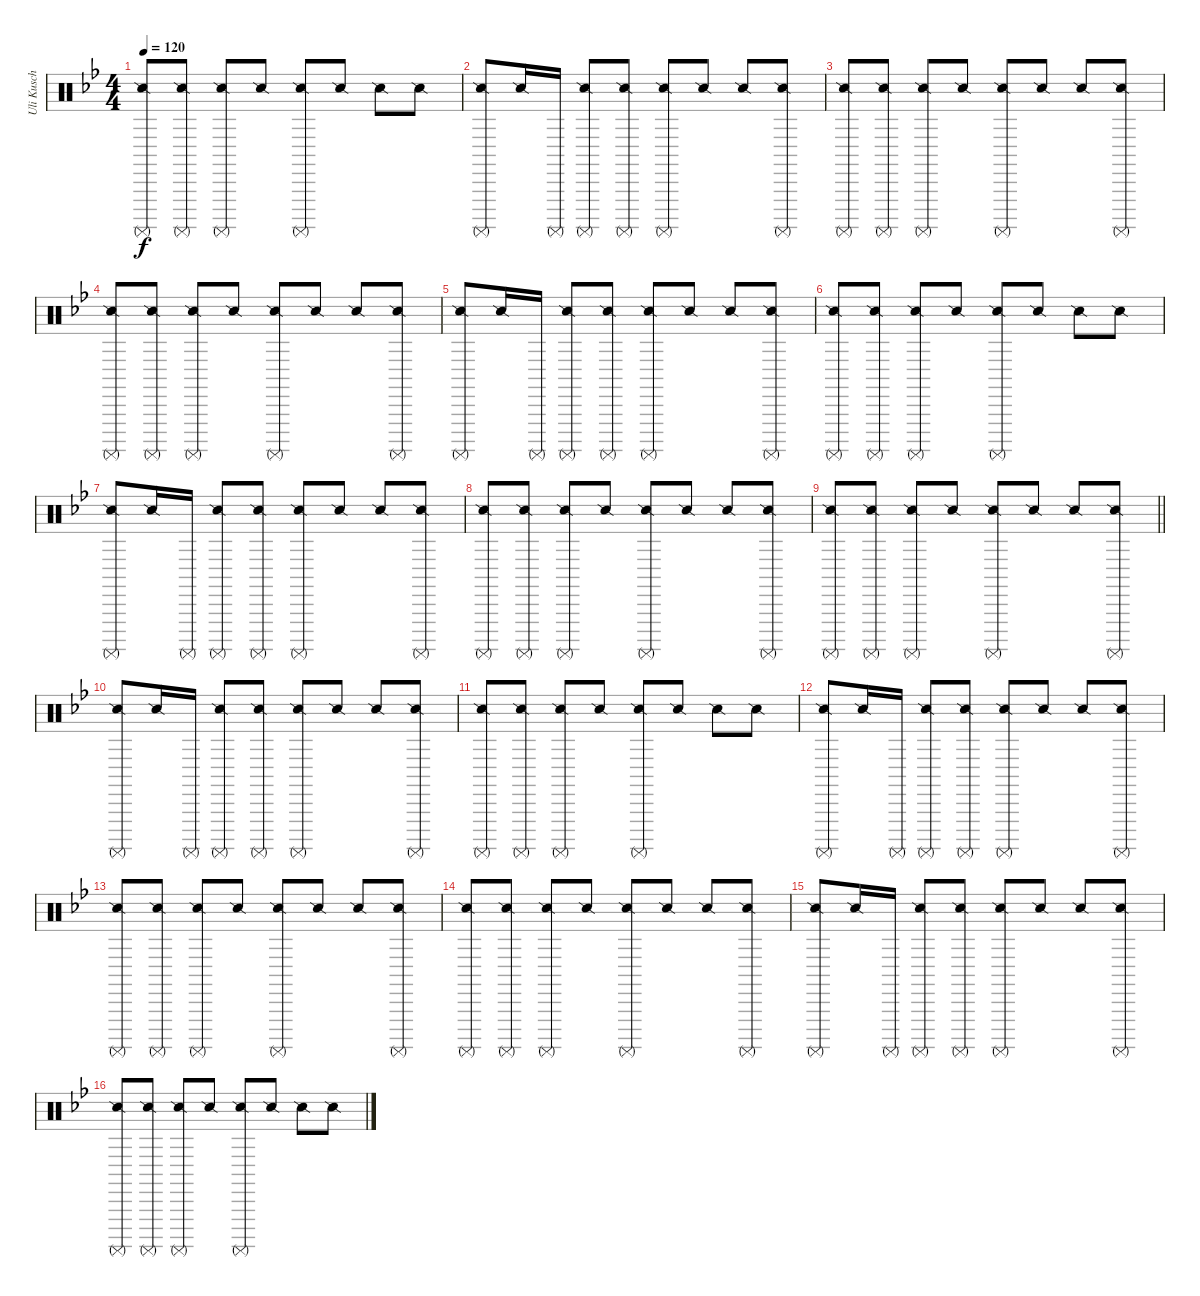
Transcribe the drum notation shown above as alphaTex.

\track ("Uli Kusch" "Uli Kusch") {instrument percussion}
\staff {score}
\articulation defaults
\ts (4 4)
\tempo 120
\clef neutral
\ks gminor
("Snare (side stick) 2" "Surdo (mute)").8{dy f} ("Snare (side stick) 2" "Surdo (mute)").8 ("Snare (side stick) 2" "Surdo (mute)").8 "Snare (side stick) 2".8 ("Snare (side stick) 2" "Surdo (mute)").8 "Snare (side stick) 2".8 "Snare (side stick) 2".8 "Snare (side stick) 2".8 |
("Surdo (mute)" "Snare (side stick) 2").8 "Snare (side stick) 2".16 "Surdo (mute)".16 ("Surdo (mute)" "Snare (side stick) 2").8 ("Surdo (mute)" "Snare (side stick) 2").8 ("Surdo (mute)" "Snare (side stick) 2").8 "Snare (side stick) 2".8 "Snare (side stick) 2".8 ("Surdo (mute)" "Snare (side stick) 2").8 |
("Snare (side stick) 2" "Surdo (mute)").8 ("Snare (side stick) 2" "Surdo (mute)").8 ("Snare (side stick) 2" "Surdo (mute)").8 "Snare (side stick) 2".8 ("Snare (side stick) 2" "Surdo (mute)").8 "Snare (side stick) 2".8 "Snare (side stick) 2".8 ("Snare (side stick) 2" "Surdo (mute)").8 |
("Snare (side stick) 2" "Surdo (mute)").8 ("Snare (side stick) 2" "Surdo (mute)").8 ("Snare (side stick) 2" "Surdo (mute)").8 "Snare (side stick) 2".8 ("Snare (side stick) 2" "Surdo (mute)").8 "Snare (side stick) 2".8 "Snare (side stick) 2".8 ("Snare (side stick) 2" "Surdo (mute)").8 |
("Surdo (mute)" "Snare (side stick) 2").8 "Snare (side stick) 2".16 "Surdo (mute)".16 ("Surdo (mute)" "Snare (side stick) 2").8 ("Surdo (mute)" "Snare (side stick) 2").8 ("Surdo (mute)" "Snare (side stick) 2").8 "Snare (side stick) 2".8 "Snare (side stick) 2".8 ("Surdo (mute)" "Snare (side stick) 2").8 |
("Snare (side stick) 2" "Surdo (mute)").8 ("Snare (side stick) 2" "Surdo (mute)").8 ("Snare (side stick) 2" "Surdo (mute)").8 "Snare (side stick) 2".8 ("Snare (side stick) 2" "Surdo (mute)").8 "Snare (side stick) 2".8 "Snare (side stick) 2".8 "Snare (side stick) 2".8 |
("Surdo (mute)" "Snare (side stick) 2").8 "Snare (side stick) 2".16 "Surdo (mute)".16 ("Surdo (mute)" "Snare (side stick) 2").8 ("Surdo (mute)" "Snare (side stick) 2").8 ("Surdo (mute)" "Snare (side stick) 2").8 "Snare (side stick) 2".8 "Snare (side stick) 2".8 ("Surdo (mute)" "Snare (side stick) 2").8 |
("Snare (side stick) 2" "Surdo (mute)").8 ("Snare (side stick) 2" "Surdo (mute)").8 ("Snare (side stick) 2" "Surdo (mute)").8 "Snare (side stick) 2".8 ("Snare (side stick) 2" "Surdo (mute)").8 "Snare (side stick) 2".8 "Snare (side stick) 2".8 ("Snare (side stick) 2" "Surdo (mute)").8 |
\barLineRight lightlight
("Snare (side stick) 2" "Surdo (mute)").8 ("Snare (side stick) 2" "Surdo (mute)").8 ("Snare (side stick) 2" "Surdo (mute)").8 "Snare (side stick) 2".8 ("Snare (side stick) 2" "Surdo (mute)").8 "Snare (side stick) 2".8 "Snare (side stick) 2".8 ("Snare (side stick) 2" "Surdo (mute)").8 |
("Surdo (mute)" "Snare (side stick) 2").8 "Snare (side stick) 2".16 "Surdo (mute)".16 ("Surdo (mute)" "Snare (side stick) 2").8 ("Surdo (mute)" "Snare (side stick) 2").8 ("Surdo (mute)" "Snare (side stick) 2").8 "Snare (side stick) 2".8 "Snare (side stick) 2".8 ("Surdo (mute)" "Snare (side stick) 2").8 |
("Snare (side stick) 2" "Surdo (mute)").8 ("Snare (side stick) 2" "Surdo (mute)").8 ("Snare (side stick) 2" "Surdo (mute)").8 "Snare (side stick) 2".8 ("Snare (side stick) 2" "Surdo (mute)").8 "Snare (side stick) 2".8 "Snare (side stick) 2".8 "Snare (side stick) 2".8 |
("Surdo (mute)" "Snare (side stick) 2").8 "Snare (side stick) 2".16 "Surdo (mute)".16 ("Surdo (mute)" "Snare (side stick) 2").8 ("Surdo (mute)" "Snare (side stick) 2").8 ("Surdo (mute)" "Snare (side stick) 2").8 "Snare (side stick) 2".8 "Snare (side stick) 2".8 ("Surdo (mute)" "Snare (side stick) 2").8 |
("Snare (side stick) 2" "Surdo (mute)").8 ("Snare (side stick) 2" "Surdo (mute)").8 ("Snare (side stick) 2" "Surdo (mute)").8 "Snare (side stick) 2".8 ("Snare (side stick) 2" "Surdo (mute)").8 "Snare (side stick) 2".8 "Snare (side stick) 2".8 ("Snare (side stick) 2" "Surdo (mute)").8 |
("Snare (side stick) 2" "Surdo (mute)").8 ("Snare (side stick) 2" "Surdo (mute)").8 ("Snare (side stick) 2" "Surdo (mute)").8 "Snare (side stick) 2".8 ("Snare (side stick) 2" "Surdo (mute)").8 "Snare (side stick) 2".8 "Snare (side stick) 2".8 ("Snare (side stick) 2" "Surdo (mute)").8 |
("Surdo (mute)" "Snare (side stick) 2").8 "Snare (side stick) 2".16 "Surdo (mute)".16 ("Surdo (mute)" "Snare (side stick) 2").8 ("Surdo (mute)" "Snare (side stick) 2").8 ("Surdo (mute)" "Snare (side stick) 2").8 "Snare (side stick) 2".8 "Snare (side stick) 2".8 ("Surdo (mute)" "Snare (side stick) 2").8 |
("Snare (side stick) 2" "Surdo (mute)").8 ("Snare (side stick) 2" "Surdo (mute)").8 ("Snare (side stick) 2" "Surdo (mute)").8 "Snare (side stick) 2".8 ("Snare (side stick) 2" "Surdo (mute)").8 "Snare (side stick) 2".8 "Snare (side stick) 2".8 "Snare (side stick) 2".8
